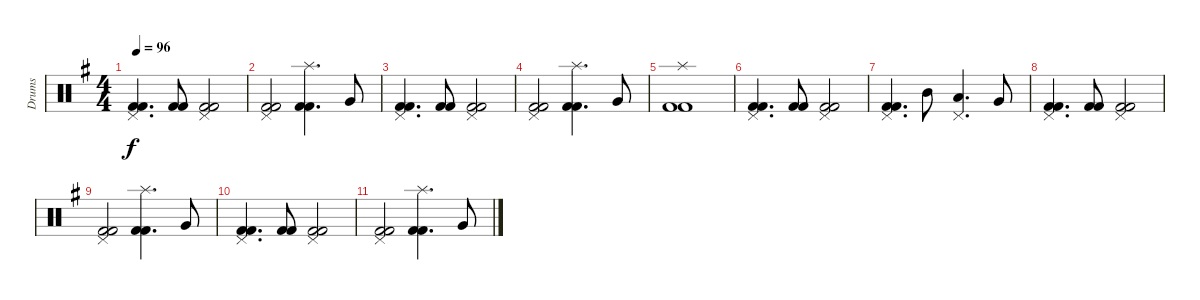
\track ("Drums" "Drums") {instrument percussion}
\staff {score}
\articulation defaults
\ts (4 4)
\tempo 96
\clef neutral
\ks g
("Kick (hit) 2" "Kick (hit) 2" "Pedal Hi-Hat (hit)").4{d dy f} ("Kick (hit) 2" "Kick (hit) 2").8 ("Kick (hit) 2" "Kick (hit) 2" "Pedal Hi-Hat (hit)").2 |
("Kick (hit) 2" "Kick (hit) 2" "Pedal Hi-Hat (hit)").2 ("Kick (hit) 2" "Kick (hit) 2" "Splash (hit)").4{d} "Very Low Tom (hit)".8 |
("Kick (hit) 2" "Kick (hit) 2" "Pedal Hi-Hat (hit)").4{d} ("Kick (hit) 2" "Kick (hit) 2").8 ("Kick (hit) 2" "Kick (hit) 2" "Pedal Hi-Hat (hit)").2 |
("Kick (hit) 2" "Kick (hit) 2" "Pedal Hi-Hat (hit)").2 ("Kick (hit) 2" "Kick (hit) 2" "Splash (hit)").4{d} "Very Low Tom (hit)".8 |
("Kick (hit) 2" "Kick (hit) 2" "Splash (hit)").1 |
("Kick (hit) 2" "Kick (hit) 2" "Pedal Hi-Hat (hit)").4{d} ("Kick (hit) 2" "Kick (hit) 2").8 ("Kick (hit) 2" "Kick (hit) 2" "Pedal Hi-Hat (hit)").2 |
("Kick (hit) 2" "Kick (hit) 2" "Pedal Hi-Hat (hit)").4{d} "Mid Tom (hit)".8 ("Low Tom (hit)" "Pedal Hi-Hat (hit)").4{d} "Very Low Tom (hit)".8 |
("Kick (hit) 2" "Kick (hit) 2" "Pedal Hi-Hat (hit)").4{d volume 0} ("Kick (hit) 2" "Kick (hit) 2").8 ("Kick (hit) 2" "Kick (hit) 2" "Pedal Hi-Hat (hit)").2 |
("Kick (hit) 2" "Kick (hit) 2" "Pedal Hi-Hat (hit)").2 ("Kick (hit) 2" "Kick (hit) 2" "Splash (hit)").4{d} "Very Low Tom (hit)".8 |
("Kick (hit) 2" "Kick (hit) 2" "Pedal Hi-Hat (hit)").4{d} ("Kick (hit) 2" "Kick (hit) 2").8 ("Kick (hit) 2" "Kick (hit) 2" "Pedal Hi-Hat (hit)").2 |
("Kick (hit) 2" "Kick (hit) 2" "Pedal Hi-Hat (hit)").2 ("Kick (hit) 2" "Kick (hit) 2" "Splash (hit)").4{d} "Very Low Tom (hit)".8
